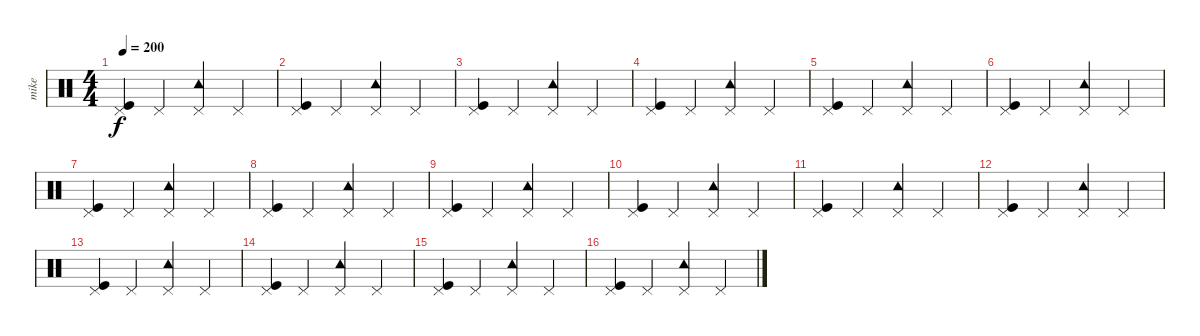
\track ("mike" "mike") {instrument percussion}
\staff {score}
\articulation defaults
\ts (4 4)
\tempo 200
\clef neutral
\ks c
("Pedal Hi-Hat (hit)" "Kick (hit)").4{dy f} "Pedal Hi-Hat (hit)".4 ("Pedal Hi-Hat (hit)" "Tambourine (hit)").4 "Pedal Hi-Hat (hit)".4 |
("Pedal Hi-Hat (hit)" "Kick (hit)").4 "Pedal Hi-Hat (hit)".4 ("Pedal Hi-Hat (hit)" "Tambourine (hit)").4 "Pedal Hi-Hat (hit)".4 |
("Pedal Hi-Hat (hit)" "Kick (hit)").4 "Pedal Hi-Hat (hit)".4 ("Pedal Hi-Hat (hit)" "Tambourine (hit)").4 "Pedal Hi-Hat (hit)".4 |
("Pedal Hi-Hat (hit)" "Kick (hit)").4 "Pedal Hi-Hat (hit)".4 ("Pedal Hi-Hat (hit)" "Tambourine (hit)").4 "Pedal Hi-Hat (hit)".4 |
("Pedal Hi-Hat (hit)" "Kick (hit)").4 "Pedal Hi-Hat (hit)".4 ("Pedal Hi-Hat (hit)" "Tambourine (hit)").4 "Pedal Hi-Hat (hit)".4 |
("Pedal Hi-Hat (hit)" "Kick (hit)").4 "Pedal Hi-Hat (hit)".4 ("Pedal Hi-Hat (hit)" "Tambourine (hit)").4 "Pedal Hi-Hat (hit)".4 |
("Pedal Hi-Hat (hit)" "Kick (hit)").4 "Pedal Hi-Hat (hit)".4 ("Pedal Hi-Hat (hit)" "Tambourine (hit)").4 "Pedal Hi-Hat (hit)".4 |
("Pedal Hi-Hat (hit)" "Kick (hit)").4 "Pedal Hi-Hat (hit)".4 ("Pedal Hi-Hat (hit)" "Tambourine (hit)").4 "Pedal Hi-Hat (hit)".4 |
("Pedal Hi-Hat (hit)" "Kick (hit)").4 "Pedal Hi-Hat (hit)".4 ("Pedal Hi-Hat (hit)" "Tambourine (hit)").4 "Pedal Hi-Hat (hit)".4 |
("Pedal Hi-Hat (hit)" "Kick (hit)").4 "Pedal Hi-Hat (hit)".4 ("Pedal Hi-Hat (hit)" "Tambourine (hit)").4 "Pedal Hi-Hat (hit)".4 |
("Pedal Hi-Hat (hit)" "Kick (hit)").4 "Pedal Hi-Hat (hit)".4 ("Pedal Hi-Hat (hit)" "Tambourine (hit)").4 "Pedal Hi-Hat (hit)".4 |
("Pedal Hi-Hat (hit)" "Kick (hit)").4 "Pedal Hi-Hat (hit)".4 ("Pedal Hi-Hat (hit)" "Tambourine (hit)").4 "Pedal Hi-Hat (hit)".4 |
("Pedal Hi-Hat (hit)" "Kick (hit)").4 "Pedal Hi-Hat (hit)".4 ("Pedal Hi-Hat (hit)" "Tambourine (hit)").4 "Pedal Hi-Hat (hit)".4 |
("Pedal Hi-Hat (hit)" "Kick (hit)").4 "Pedal Hi-Hat (hit)".4 ("Pedal Hi-Hat (hit)" "Tambourine (hit)").4 "Pedal Hi-Hat (hit)".4 |
("Pedal Hi-Hat (hit)" "Kick (hit)").4 "Pedal Hi-Hat (hit)".4 ("Pedal Hi-Hat (hit)" "Tambourine (hit)").4 "Pedal Hi-Hat (hit)".4 |
("Pedal Hi-Hat (hit)" "Kick (hit)").4 "Pedal Hi-Hat (hit)".4 ("Pedal Hi-Hat (hit)" "Tambourine (hit)").4 "Pedal Hi-Hat (hit)".4
